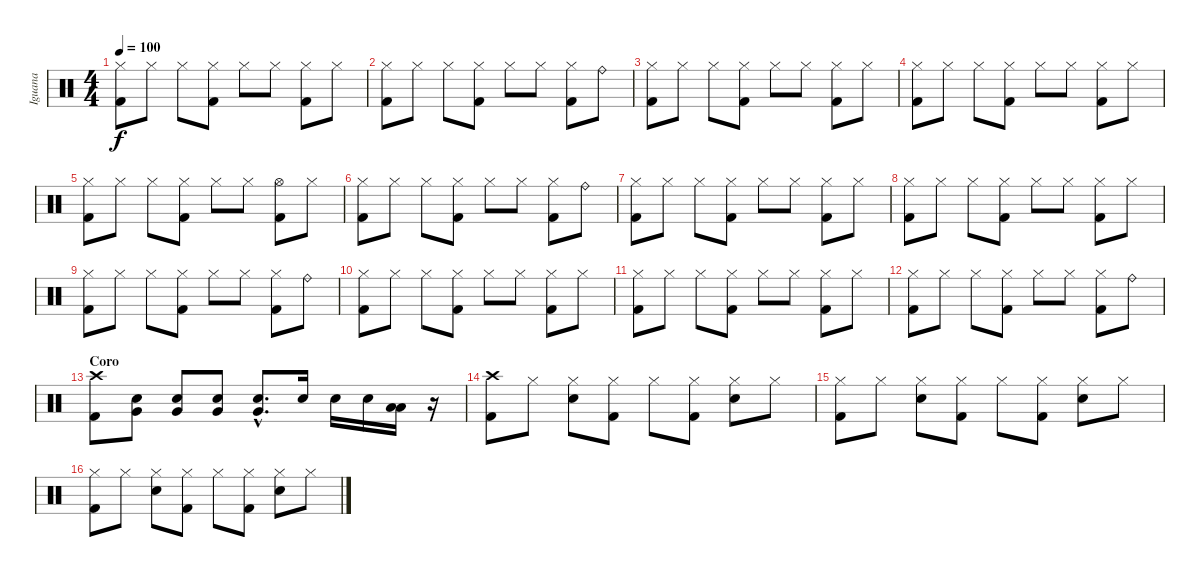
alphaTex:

\track ("Iguana" "Iguana") {instrument percussion}
\staff {score}
\articulation defaults
\ts (4 4)
\tempo 100
\clef neutral
\ks c
("Hi-Hat (closed)" "Kick (hit) 2").8{dy f} "Hi-Hat (closed)".8 "Hi-Hat (closed)".8 ("Hi-Hat (closed)" "Kick (hit) 2").8 "Hi-Hat (closed)".8 "Hi-Hat (closed)".8 ("Hi-Hat (closed)" "Kick (hit) 2").8 "Hi-Hat (closed)".8 |
("Hi-Hat (closed)" "Kick (hit) 2").8 "Hi-Hat (closed)".8 "Hi-Hat (closed)".8 ("Hi-Hat (closed)" "Kick (hit) 2").8 "Hi-Hat (closed)".8 "Hi-Hat (closed)".8 ("Hi-Hat (closed)" "Kick (hit) 2").8 "Ride (bell)".8 |
("Hi-Hat (closed)" "Kick (hit) 2").8 "Hi-Hat (closed)".8 "Hi-Hat (closed)".8 ("Hi-Hat (closed)" "Kick (hit) 2").8 "Hi-Hat (closed)".8 "Hi-Hat (closed)".8 ("Hi-Hat (closed)" "Kick (hit) 2").8 "Hi-Hat (closed)".8 |
("Hi-Hat (closed)" "Kick (hit) 2").8 "Hi-Hat (closed)".8 "Hi-Hat (closed)".8 ("Hi-Hat (closed)" "Kick (hit) 2").8 "Hi-Hat (closed)".8 "Hi-Hat (closed)".8 ("Hi-Hat (closed)" "Kick (hit) 2").8 "Hi-Hat (closed)".8 |
("Hi-Hat (closed)" "Kick (hit) 2").8 "Hi-Hat (closed)".8 "Hi-Hat (closed)".8 ("Hi-Hat (closed)" "Kick (hit) 2").8 "Hi-Hat (closed)".8 "Hi-Hat (closed)".8 ("Hi-Hat (open)" "Kick (hit) 2").8 "Hi-Hat (closed)".8 |
("Hi-Hat (closed)" "Kick (hit) 2").8 "Hi-Hat (closed)".8 "Hi-Hat (closed)".8 ("Hi-Hat (closed)" "Kick (hit) 2").8 "Hi-Hat (closed)".8 "Hi-Hat (closed)".8 ("Hi-Hat (closed)" "Kick (hit) 2").8 "Ride (bell)".8 |
("Hi-Hat (closed)" "Kick (hit) 2").8 "Hi-Hat (closed)".8 "Hi-Hat (closed)".8 ("Hi-Hat (closed)" "Kick (hit) 2").8 "Hi-Hat (closed)".8 "Hi-Hat (closed)".8 ("Hi-Hat (closed)" "Kick (hit) 2").8 "Hi-Hat (closed)".8 |
("Hi-Hat (closed)" "Kick (hit) 2").8 "Hi-Hat (closed)".8 "Hi-Hat (closed)".8 ("Hi-Hat (closed)" "Kick (hit) 2").8 "Hi-Hat (closed)".8 "Hi-Hat (closed)".8 ("Hi-Hat (closed)" "Kick (hit) 2").8 "Hi-Hat (closed)".8 |
("Hi-Hat (closed)" "Kick (hit) 2").8 "Hi-Hat (closed)".8 "Hi-Hat (closed)".8 ("Hi-Hat (closed)" "Kick (hit) 2").8 "Hi-Hat (closed)".8 "Hi-Hat (closed)".8 ("Hi-Hat (closed)" "Kick (hit) 2").8 "Ride (bell)".8 |
("Hi-Hat (closed)" "Kick (hit) 2").8 "Hi-Hat (closed)".8 "Hi-Hat (closed)".8 ("Hi-Hat (closed)" "Kick (hit) 2").8 "Hi-Hat (closed)".8 "Hi-Hat (closed)".8 ("Hi-Hat (closed)" "Kick (hit) 2").8 "Hi-Hat (closed)".8 |
("Hi-Hat (closed)" "Kick (hit) 2").8 "Hi-Hat (closed)".8 "Hi-Hat (closed)".8 ("Hi-Hat (closed)" "Kick (hit) 2").8 "Hi-Hat (closed)".8 "Hi-Hat (closed)".8 ("Hi-Hat (closed)" "Kick (hit) 2").8 "Hi-Hat (closed)".8 |
("Hi-Hat (closed)" "Kick (hit) 2").8 "Hi-Hat (closed)".8 "Hi-Hat (closed)".8 ("Hi-Hat (closed)" "Kick (hit) 2").8 "Hi-Hat (closed)".8 "Hi-Hat (closed)".8 ("Hi-Hat (closed)" "Kick (hit) 2").8 "Ride (bell)".8 |
\section ("" "Coro")
("Crash high (hit)" "Kick (hit) 2").8 ("Very Low Tom (hit)" "Electric Snare (hit)").8 ("Very Low Tom (hit)" "Electric Snare (hit)").8 ("Very Low Tom (hit)" "Electric Snare (hit)").8 ("Very Low Tom (hit)"{hac} "Electric Snare (hit)"{hac}).8{d} "Electric Snare (hit)".16 "Electric Snare (hit)".16 "Electric Snare (hit)".16 ("Low Tom (hit)" "Low Tom (hit)").16 r.16 |
("Crash high (hit)" "Kick (hit) 2").8 "Hi-Hat (closed)".8 ("Hi-Hat (closed)" "Electric Snare (hit)").8 ("Hi-Hat (closed)" "Kick (hit) 2").8 "Hi-Hat (closed)".8 ("Hi-Hat (closed)" "Kick (hit) 2").8 ("Hi-Hat (closed)" "Electric Snare (hit)").8 "Hi-Hat (closed)".8 |
("Hi-Hat (closed)" "Kick (hit) 2").8 "Hi-Hat (closed)".8 ("Hi-Hat (closed)" "Electric Snare (hit)").8 ("Hi-Hat (closed)" "Kick (hit) 2").8 "Hi-Hat (closed)".8 ("Hi-Hat (closed)" "Kick (hit) 2").8 ("Hi-Hat (closed)" "Electric Snare (hit)").8 "Hi-Hat (closed)".8 |
("Hi-Hat (closed)" "Kick (hit) 2").8 "Hi-Hat (closed)".8 ("Hi-Hat (closed)" "Electric Snare (hit)").8 ("Hi-Hat (closed)" "Kick (hit) 2").8 "Hi-Hat (closed)".8 ("Hi-Hat (closed)" "Kick (hit) 2").8 ("Hi-Hat (closed)" "Electric Snare (hit)").8 "Hi-Hat (closed)".8
